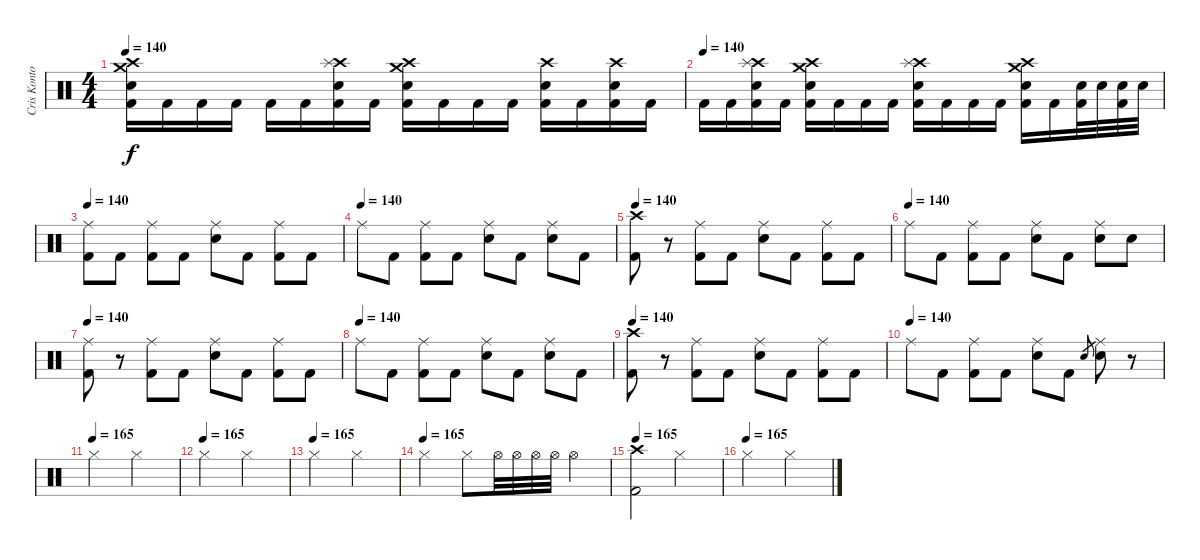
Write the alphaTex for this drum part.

\track ("Cris Kontos" "Cris Konto") {instrument percussion}
\staff {score}
\articulation defaults
\ts (4 4)
\tempo 140
\clef neutral
\ks c
("Crash high (hit)" "Crash medium (hit)" "Electric Snare (hit)" "Kick (hit) 2").16{dy f} "Kick (hit) 2".16 "Kick (hit) 2".16 "Kick (hit) 2".16 "Kick (hit) 2".16 "Kick (hit) 2".16 ("Crash high (hit)" "Splash (hit)" "Electric Snare (hit)" "Kick (hit) 2").16 "Kick (hit) 2".16 ("Crash high (hit)" "Crash medium (hit)" "Electric Snare (hit)" "Kick (hit) 2").16 "Kick (hit) 2".16 "Kick (hit) 2".16 "Kick (hit) 2".16 ("Crash high (hit)" "Electric Snare (hit)" "Kick (hit) 2").16 "Kick (hit) 2".16 ("Crash high (hit)" "Electric Snare (hit)" "Kick (hit) 2").16 "Kick (hit) 2".16 |
\tempo (140)
"Kick (hit) 2".16 "Kick (hit) 2".16 ("Crash high (hit)" "Splash (hit)" "Electric Snare (hit)" "Kick (hit) 2").16 "Kick (hit) 2".16 ("Crash high (hit)" "Crash medium (hit)" "Electric Snare (hit)" "Kick (hit) 2").16 "Kick (hit) 2".16 "Kick (hit) 2".16 "Kick (hit) 2".16 ("Crash high (hit)" "Splash (hit)" "Electric Snare (hit)" "Kick (hit) 2").16 "Kick (hit) 2".16 "Kick (hit) 2".16 "Kick (hit) 2".16 ("Crash high (hit)" "Crash medium (hit)" "Electric Snare (hit)" "Kick (hit) 2").16 "Kick (hit) 2".16 ("Electric Snare (hit)" "Kick (hit) 2").32 "Electric Snare (hit)".32 ("Electric Snare (hit)" "Kick (hit) 2").32 "Electric Snare (hit)".32 |
\tempo 140
("Ride (middle)" "Kick (hit) 2").8 "Kick (hit) 2".8 ("Ride (middle)" "Kick (hit) 2").8 "Kick (hit) 2".8 ("Ride (middle)" "Electric Snare (hit)").8 "Kick (hit) 2".8 ("Ride (middle)" "Kick (hit) 2").8 "Kick (hit) 2".8 |
\tempo (140)
"Ride (middle)".8 "Kick (hit) 2".8 ("Ride (middle)" "Kick (hit) 2").8 "Kick (hit) 2".8 ("Ride (middle)" "Electric Snare (hit)").8 "Kick (hit) 2".8 ("Ride (middle)" "Electric Snare (hit)").8 "Kick (hit) 2".8 |
\tempo 140
("Crash high (hit)" "Kick (hit) 2").8 r.8 ("Ride (middle)" "Kick (hit) 2").8 "Kick (hit) 2".8 ("Ride (middle)" "Electric Snare (hit)").8 "Kick (hit) 2".8 ("Ride (middle)" "Kick (hit) 2").8 "Kick (hit) 2".8 |
\tempo (140)
"Ride (middle)".8 "Kick (hit) 2".8 ("Ride (middle)" "Kick (hit) 2").8 "Kick (hit) 2".8 ("Ride (middle)" "Electric Snare (hit)").8 "Kick (hit) 2".8 ("Ride (middle)" "Electric Snare (hit)").8 "Electric Snare (hit)".8 |
\tempo 140
("Ride (middle)" "Kick (hit) 2").8 r.8 ("Ride (middle)" "Kick (hit) 2").8 "Kick (hit) 2".8 ("Ride (middle)" "Electric Snare (hit)").8 "Kick (hit) 2".8 ("Ride (middle)" "Kick (hit) 2").8 "Kick (hit) 2".8 |
\tempo (140)
"Ride (middle)".8 "Kick (hit) 2".8 ("Ride (middle)" "Kick (hit) 2").8 "Kick (hit) 2".8 ("Ride (middle)" "Electric Snare (hit)").8 "Kick (hit) 2".8 ("Ride (middle)" "Electric Snare (hit)").8 "Kick (hit) 2".8 |
\tempo 140
("Crash high (hit)" "Kick (hit) 2").8 r.8 ("Ride (middle)" "Kick (hit) 2").8 "Kick (hit) 2".8 ("Ride (middle)" "Electric Snare (hit)").8 "Kick (hit) 2".8 ("Ride (middle)" "Kick (hit) 2").8 "Kick (hit) 2".8 |
\tempo (140)
"Ride (middle)".8 "Kick (hit) 2".8 ("Ride (middle)" "Kick (hit) 2").8 "Kick (hit) 2".8 ("Ride (middle)" "Electric Snare (hit)").8 "Kick (hit) 2".8 "Electric Snare (hit)".8{gr} ("Ride (middle)" "Electric Snare (hit)").8 r.8 |
\tempo 150
\tempo (165)
"Hi-Hat (closed)".2 "Hi-Hat (closed)".2 |
\tempo (165)
"Hi-Hat (closed)".2 "Hi-Hat (closed)".2 |
\tempo (165)
"Hi-Hat (closed)".2 "Hi-Hat (closed)".2 |
\tempo (165)
"Hi-Hat (closed)".2 "Hi-Hat (closed)".8 "Hi-Hat (open)".32 "Hi-Hat (open)".32 "Hi-Hat (open)".32 "Hi-Hat (open)".32 "Hi-Hat (open)".4 |
\tempo 165
("Crash high (hit)" "Kick (hit) 2").2 "Hi-Hat (closed)".2 |
\tempo (165)
"Hi-Hat (closed)".2 "Hi-Hat (closed)".2
